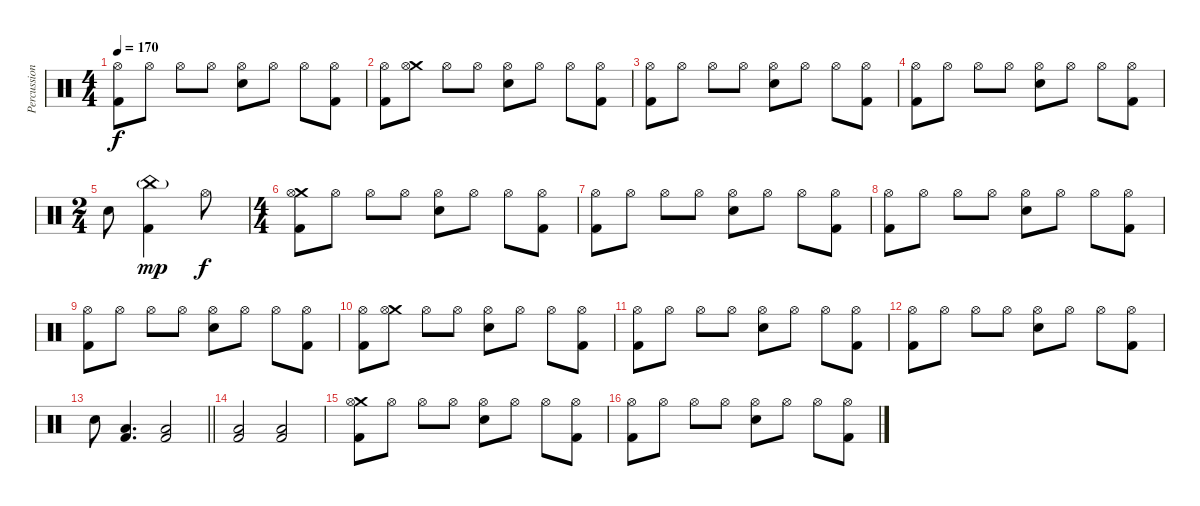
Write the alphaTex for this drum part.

\track ("Percussions" "Percussion") {instrument percussion}
\staff {score}
\articulation defaults
\ts (4 4)
\tempo 170
\clef neutral
\ks c
("Hi-Hat (open)" "Kick (hit) 2").8{dy f} "Hi-Hat (open)".8 "Hi-Hat (open)".8 "Hi-Hat (open)".8 ("Hi-Hat (open)" "Electric Snare (hit)").8 "Hi-Hat (open)".8 "Hi-Hat (open)".8 ("Hi-Hat (open)" "Kick (hit) 2").8 |
("Hi-Hat (open)" "Kick (hit) 2").8 ("Crash medium (hit)" "Hi-Hat (open)").8 "Hi-Hat (open)".8 "Hi-Hat (open)".8 ("Hi-Hat (open)" "Electric Snare (hit)").8 "Hi-Hat (open)".8 "Hi-Hat (open)".8 ("Hi-Hat (open)" "Kick (hit) 2").8 |
("Hi-Hat (open)" "Kick (hit) 2").8 "Hi-Hat (open)".8 "Hi-Hat (open)".8 "Hi-Hat (open)".8 ("Hi-Hat (open)" "Electric Snare (hit)").8 "Hi-Hat (open)".8 "Hi-Hat (open)".8 ("Hi-Hat (open)" "Kick (hit) 2").8 |
("Hi-Hat (open)" "Kick (hit) 2").8 "Hi-Hat (open)".8 "Hi-Hat (open)".8 "Hi-Hat (open)".8 ("Hi-Hat (open)" "Electric Snare (hit)").8 "Hi-Hat (open)".8 "Hi-Hat (open)".8 ("Hi-Hat (open)" "Kick (hit) 2").8 |
\ts (2 4)
"Electric Snare (hit)".8 ("China (hit)"{g} "Kick (hit) 2").4{dy mp} "Hi-Hat (open)".8{dy f} |
\ts (4 4)
("Crash medium (hit)" "Hi-Hat (open)" "Kick (hit) 2").8 "Hi-Hat (open)".8 "Hi-Hat (open)".8 "Hi-Hat (open)".8 ("Hi-Hat (open)" "Electric Snare (hit)").8 "Hi-Hat (open)".8 "Hi-Hat (open)".8 ("Hi-Hat (open)" "Kick (hit) 2").8 |
("Hi-Hat (open)" "Kick (hit) 2").8 "Hi-Hat (open)".8 "Hi-Hat (open)".8 "Hi-Hat (open)".8 ("Hi-Hat (open)" "Electric Snare (hit)").8 "Hi-Hat (open)".8 "Hi-Hat (open)".8 ("Hi-Hat (open)" "Kick (hit) 2").8 |
("Hi-Hat (open)" "Kick (hit) 2").8 "Hi-Hat (open)".8 "Hi-Hat (open)".8 "Hi-Hat (open)".8 ("Hi-Hat (open)" "Electric Snare (hit)").8 "Hi-Hat (open)".8 "Hi-Hat (open)".8 ("Hi-Hat (open)" "Kick (hit) 2").8 |
("Hi-Hat (open)" "Kick (hit) 2").8 "Hi-Hat (open)".8 "Hi-Hat (open)".8 "Hi-Hat (open)".8 ("Hi-Hat (open)" "Electric Snare (hit)").8 "Hi-Hat (open)".8 "Hi-Hat (open)".8 ("Hi-Hat (open)" "Kick (hit) 2").8 |
("Hi-Hat (open)" "Kick (hit) 2").8 ("Crash medium (hit)" "Hi-Hat (open)").8 "Hi-Hat (open)".8 "Hi-Hat (open)".8 ("Hi-Hat (open)" "Electric Snare (hit)").8 "Hi-Hat (open)".8 "Hi-Hat (open)".8 ("Hi-Hat (open)" "Kick (hit) 2").8 |
("Hi-Hat (open)" "Kick (hit) 2").8 "Hi-Hat (open)".8 "Hi-Hat (open)".8 "Hi-Hat (open)".8 ("Hi-Hat (open)" "Electric Snare (hit)").8 "Hi-Hat (open)".8 "Hi-Hat (open)".8 ("Hi-Hat (open)" "Kick (hit) 2").8 |
("Hi-Hat (open)" "Kick (hit) 2").8 "Hi-Hat (open)".8 "Hi-Hat (open)".8 "Hi-Hat (open)".8 ("Hi-Hat (open)" "Electric Snare (hit)").8 "Hi-Hat (open)".8 "Hi-Hat (open)".8 ("Hi-Hat (open)" "Kick (hit) 2").8 |
\barLineRight lightlight "Electric Snare (hit)".8
("Low Tom (hit)" "Kick (hit) 2").4{d} ("Low Tom (hit)" "Kick (hit) 2").2 |
("Low Tom (hit)" "Kick (hit) 2").2 ("Low Tom (hit)" "Kick (hit) 2").2 |
("Crash medium (hit)" "Hi-Hat (open)" "Kick (hit) 2").8 "Hi-Hat (open)".8 "Hi-Hat (open)".8 "Hi-Hat (open)".8 ("Hi-Hat (open)" "Electric Snare (hit)").8 "Hi-Hat (open)".8 "Hi-Hat (open)".8 ("Hi-Hat (open)" "Kick (hit) 2").8 |
("Hi-Hat (open)" "Kick (hit) 2").8 "Hi-Hat (open)".8 "Hi-Hat (open)".8 "Hi-Hat (open)".8 ("Hi-Hat (open)" "Electric Snare (hit)").8 "Hi-Hat (open)".8 "Hi-Hat (open)".8 ("Hi-Hat (open)" "Kick (hit) 2").8
